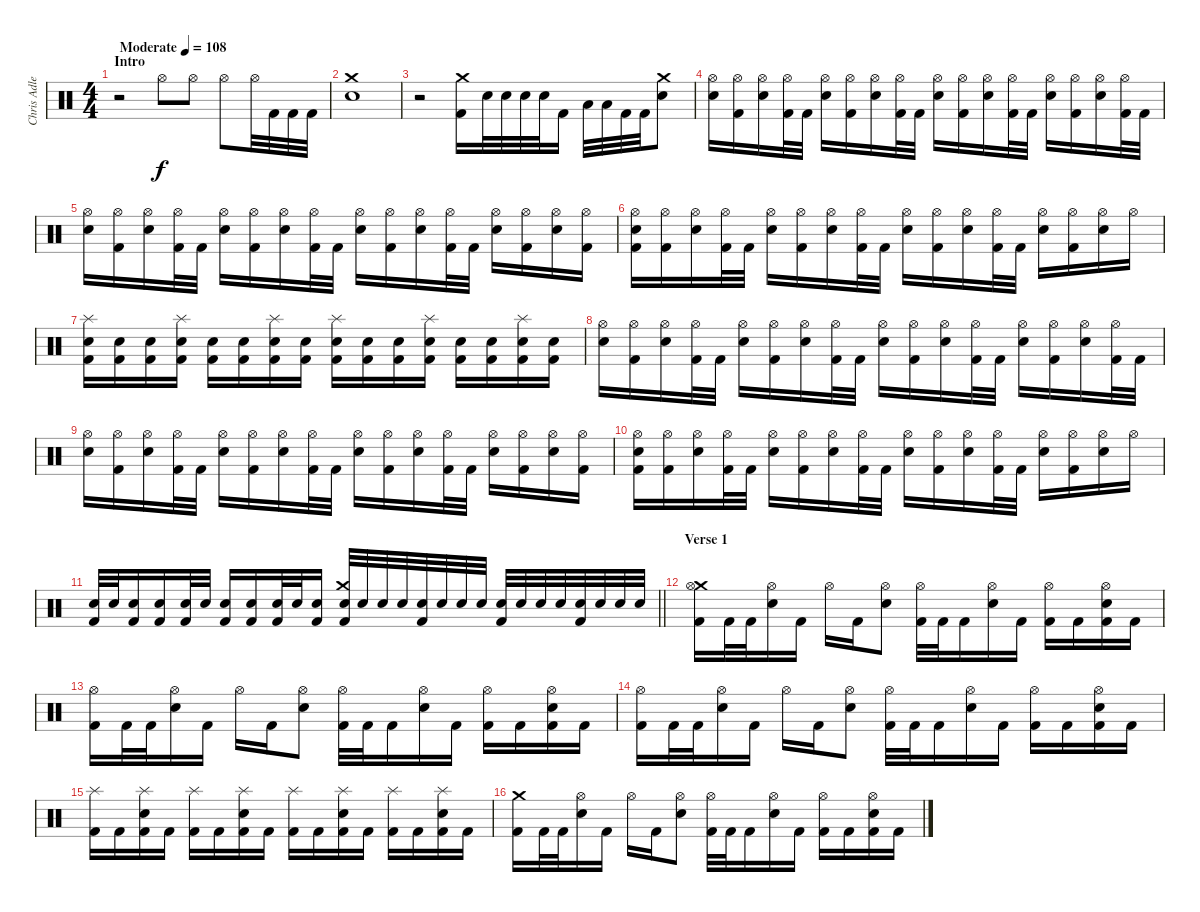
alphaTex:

\track ("Chris Adler" "Chris Adle") {instrument percussion}
\staff {score}
\articulation defaults
\ts (4 4)
\section ("" "Intro")
\tempo (108 "Moderate")
\clef neutral
\ks c
r.2{dy f} "Hi-Hat (open)".8 "Hi-Hat (open)".8 "Hi-Hat (open)".8 "Hi-Hat (open)".32 "Kick (hit) 2".32 "Kick (hit) 2".32 "Kick (hit) 2".32 |
("Crash medium (hit)" "Electric Snare (hit)").1 |
r.2 ("Crash medium (hit)" "Kick (hit) 2").16 "Electric Snare (hit)".32 "Electric Snare (hit)".32 "Electric Snare (hit)".32 "Electric Snare (hit)".32 "Kick (hit) 2".16 "Low Tom (hit)".32 "Low Tom (hit)".32 "Kick (hit) 2".32 "Kick (hit) 2".32 ("Crash medium (hit)" "Electric Snare (hit)").8 |
("Hi-Hat (open)" "Electric Snare (hit)").16 ("Hi-Hat (open)" "Kick (hit) 2").16 ("Hi-Hat (open)" "Electric Snare (hit)").16 ("Hi-Hat (open)" "Kick (hit) 2").32 "Kick (hit) 2".32 ("Hi-Hat (open)" "Electric Snare (hit)").16 ("Hi-Hat (open)" "Kick (hit) 2").16 ("Hi-Hat (open)" "Electric Snare (hit)").16 ("Hi-Hat (open)" "Kick (hit) 2").32 "Kick (hit) 2".32 ("Hi-Hat (open)" "Electric Snare (hit)").16 ("Hi-Hat (open)" "Kick (hit) 2").16 ("Hi-Hat (open)" "Electric Snare (hit)").16 ("Hi-Hat (open)" "Kick (hit) 2").32 "Kick (hit) 2".32 ("Hi-Hat (open)" "Electric Snare (hit)").16 ("Hi-Hat (open)" "Kick (hit) 2").16 ("Hi-Hat (open)" "Electric Snare (hit)").16 ("Hi-Hat (open)" "Kick (hit) 2").32 "Kick (hit) 2".32 |
("Hi-Hat (open)" "Electric Snare (hit)").16 ("Hi-Hat (open)" "Kick (hit) 2").16 ("Hi-Hat (open)" "Electric Snare (hit)").16 ("Hi-Hat (open)" "Kick (hit) 2").32 "Kick (hit) 2".32 ("Hi-Hat (open)" "Electric Snare (hit)").16 ("Hi-Hat (open)" "Kick (hit) 2").16 ("Hi-Hat (open)" "Electric Snare (hit)").16 ("Hi-Hat (open)" "Kick (hit) 2").32 "Kick (hit) 2".32 ("Hi-Hat (open)" "Electric Snare (hit)").16 ("Hi-Hat (open)" "Kick (hit) 2").16 ("Hi-Hat (open)" "Electric Snare (hit)").16 ("Hi-Hat (open)" "Kick (hit) 2").32 "Kick (hit) 2".32 ("Hi-Hat (open)" "Electric Snare (hit)").16 ("Hi-Hat (open)" "Kick (hit) 2").16 ("Hi-Hat (open)" "Electric Snare (hit)").16 ("Hi-Hat (open)" "Kick (hit) 2").16 |
("Hi-Hat (open)" "Electric Snare (hit)" "Kick (hit) 2").16 ("Hi-Hat (open)" "Kick (hit) 2").16 ("Hi-Hat (open)" "Electric Snare (hit)").16 ("Hi-Hat (open)" "Kick (hit) 2").32 "Kick (hit) 2".32 ("Hi-Hat (open)" "Electric Snare (hit)").16 ("Hi-Hat (open)" "Kick (hit) 2").16 ("Hi-Hat (open)" "Electric Snare (hit)").16 ("Hi-Hat (open)" "Kick (hit) 2").32 "Kick (hit) 2".32 ("Hi-Hat (open)" "Electric Snare (hit)").16 ("Hi-Hat (open)" "Kick (hit) 2").16 ("Hi-Hat (open)" "Electric Snare (hit)").16 ("Hi-Hat (open)" "Kick (hit) 2").32 "Kick (hit) 2".32 ("Hi-Hat (open)" "Electric Snare (hit)").16 ("Hi-Hat (open)" "Kick (hit) 2").16 ("Hi-Hat (open)" "Electric Snare (hit)").16 "Hi-Hat (open)".16 |
("Splash (hit)" "Electric Snare (hit)" "Kick (hit) 2").16 ("Electric Snare (hit)" "Kick (hit) 2").16 ("Electric Snare (hit)" "Kick (hit) 2").16 ("Splash (hit)" "Electric Snare (hit)" "Kick (hit) 2").16 ("Electric Snare (hit)" "Kick (hit) 2").16 ("Electric Snare (hit)" "Kick (hit) 2").16 ("Splash (hit)" "Electric Snare (hit)" "Kick (hit) 2").16 ("Electric Snare (hit)" "Kick (hit) 2").16 ("Splash (hit)" "Electric Snare (hit)" "Kick (hit) 2").16 ("Electric Snare (hit)" "Kick (hit) 2").16 ("Electric Snare (hit)" "Kick (hit) 2").16 ("Splash (hit)" "Electric Snare (hit)" "Kick (hit) 2").16 ("Electric Snare (hit)" "Kick (hit) 2").16 ("Electric Snare (hit)" "Kick (hit) 2").16 ("Splash (hit)" "Electric Snare (hit)" "Kick (hit) 2").16 ("Electric Snare (hit)" "Kick (hit) 2").16 |
("Hi-Hat (open)" "Electric Snare (hit)").16 ("Hi-Hat (open)" "Kick (hit) 2").16 ("Hi-Hat (open)" "Electric Snare (hit)").16 ("Hi-Hat (open)" "Kick (hit) 2").32 "Kick (hit) 2".32 ("Hi-Hat (open)" "Electric Snare (hit)").16 ("Hi-Hat (open)" "Kick (hit) 2").16 ("Hi-Hat (open)" "Electric Snare (hit)").16 ("Hi-Hat (open)" "Kick (hit) 2").32 "Kick (hit) 2".32 ("Hi-Hat (open)" "Electric Snare (hit)").16 ("Hi-Hat (open)" "Kick (hit) 2").16 ("Hi-Hat (open)" "Electric Snare (hit)").16 ("Hi-Hat (open)" "Kick (hit) 2").32 "Kick (hit) 2".32 ("Hi-Hat (open)" "Electric Snare (hit)").16 ("Hi-Hat (open)" "Kick (hit) 2").16 ("Hi-Hat (open)" "Electric Snare (hit)").16 ("Hi-Hat (open)" "Kick (hit) 2").32 "Kick (hit) 2".32 |
("Hi-Hat (open)" "Electric Snare (hit)").16 ("Hi-Hat (open)" "Kick (hit) 2").16 ("Hi-Hat (open)" "Electric Snare (hit)").16 ("Hi-Hat (open)" "Kick (hit) 2").32 "Kick (hit) 2".32 ("Hi-Hat (open)" "Electric Snare (hit)").16 ("Hi-Hat (open)" "Kick (hit) 2").16 ("Hi-Hat (open)" "Electric Snare (hit)").16 ("Hi-Hat (open)" "Kick (hit) 2").32 "Kick (hit) 2".32 ("Hi-Hat (open)" "Electric Snare (hit)").16 ("Hi-Hat (open)" "Kick (hit) 2").16 ("Hi-Hat (open)" "Electric Snare (hit)").16 ("Hi-Hat (open)" "Kick (hit) 2").32 "Kick (hit) 2".32 ("Hi-Hat (open)" "Electric Snare (hit)").16 ("Hi-Hat (open)" "Kick (hit) 2").16 ("Hi-Hat (open)" "Electric Snare (hit)").16 ("Hi-Hat (open)" "Kick (hit) 2").16 |
("Hi-Hat (open)" "Electric Snare (hit)" "Kick (hit) 2").16 ("Hi-Hat (open)" "Kick (hit) 2").16 ("Hi-Hat (open)" "Electric Snare (hit)").16 ("Hi-Hat (open)" "Kick (hit) 2").32 "Kick (hit) 2".32 ("Hi-Hat (open)" "Electric Snare (hit)").16 ("Hi-Hat (open)" "Kick (hit) 2").16 ("Hi-Hat (open)" "Electric Snare (hit)").16 ("Hi-Hat (open)" "Kick (hit) 2").32 "Kick (hit) 2".32 ("Hi-Hat (open)" "Electric Snare (hit)").16 ("Hi-Hat (open)" "Kick (hit) 2").16 ("Hi-Hat (open)" "Electric Snare (hit)").16 ("Hi-Hat (open)" "Kick (hit) 2").32 "Kick (hit) 2".32 ("Hi-Hat (open)" "Electric Snare (hit)").16 ("Hi-Hat (open)" "Kick (hit) 2").16 ("Hi-Hat (open)" "Electric Snare (hit)").16 "Hi-Hat (open)".16 |
\barLineRight lightlight
("Electric Snare (hit)" "Kick (hit) 2").32 "Electric Snare (hit)".32 ("Electric Snare (hit)" "Kick (hit) 2").16 ("Electric Snare (hit)" "Kick (hit) 2").16 ("Electric Snare (hit)" "Kick (hit) 2").32 "Electric Snare (hit)".32 ("Electric Snare (hit)" "Kick (hit) 2").16 ("Electric Snare (hit)" "Kick (hit) 2").16 ("Electric Snare (hit)" "Kick (hit) 2").32 "Electric Snare (hit)".32 ("Electric Snare (hit)" "Kick (hit) 2").16 ("Crash medium (hit)" "Electric Snare (hit)" "Kick (hit) 2").32{volume 16} "Electric Snare (hit)".32 "Electric Snare (hit)".32 "Electric Snare (hit)".32 ("Electric Snare (hit)" "Kick (hit) 2").32 "Electric Snare (hit)".32 "Electric Snare (hit)".32 "Electric Snare (hit)".32 ("Electric Snare (hit)" "Kick (hit) 2").32 "Electric Snare (hit)".32 "Electric Snare (hit)".32 "Electric Snare (hit)".32 ("Electric Snare (hit)" "Kick (hit) 2").32 "Electric Snare (hit)".32 "Electric Snare (hit)".32 "Electric Snare (hit)".32 |
\section ("" "Verse 1")
("Crash medium (hit)" "Hi-Hat (open)" "Kick (hit) 2").16 "Kick (hit) 2".32 "Kick (hit) 2".32 ("Hi-Hat (open)" "Electric Snare (hit)").16 "Kick (hit) 2".16 "Hi-Hat (open)".16 "Kick (hit) 2".16 ("Hi-Hat (open)" "Electric Snare (hit)").8 ("Hi-Hat (open)" "Kick (hit) 2").32 "Kick (hit) 2".32 "Kick (hit) 2".16 ("Hi-Hat (open)" "Electric Snare (hit)").16 "Kick (hit) 2".16 ("Hi-Hat (open)" "Kick (hit) 2").16 "Kick (hit) 2".16 ("Hi-Hat (open)" "Electric Snare (hit)" "Kick (hit) 2").16 "Kick (hit) 2".16 |
("Hi-Hat (open)" "Kick (hit) 2").16 "Kick (hit) 2".32 "Kick (hit) 2".32 ("Hi-Hat (open)" "Electric Snare (hit)").16 "Kick (hit) 2".16 "Hi-Hat (open)".16 "Kick (hit) 2".16 ("Hi-Hat (open)" "Electric Snare (hit)").8 ("Hi-Hat (open)" "Kick (hit) 2").32 "Kick (hit) 2".32 "Kick (hit) 2".16 ("Hi-Hat (open)" "Electric Snare (hit)").16 "Kick (hit) 2".16 ("Hi-Hat (open)" "Kick (hit) 2").16 "Kick (hit) 2".16 ("Hi-Hat (open)" "Electric Snare (hit)" "Kick (hit) 2").16 "Kick (hit) 2".16 |
("Hi-Hat (open)" "Kick (hit) 2").16 "Kick (hit) 2".32 "Kick (hit) 2".32 ("Hi-Hat (open)" "Electric Snare (hit)").16 "Kick (hit) 2".16 "Hi-Hat (open)".16 "Kick (hit) 2".16 ("Hi-Hat (open)" "Electric Snare (hit)").8 ("Hi-Hat (open)" "Kick (hit) 2").32 "Kick (hit) 2".32 "Kick (hit) 2".16 ("Hi-Hat (open)" "Electric Snare (hit)").16 "Kick (hit) 2".16 ("Hi-Hat (open)" "Kick (hit) 2").16 "Kick (hit) 2".16 ("Hi-Hat (open)" "Electric Snare (hit)" "Kick (hit) 2").16 "Kick (hit) 2".16 |
("Splash (hit)" "Kick (hit) 2").16 "Kick (hit) 2".16 ("Splash (hit)" "Electric Snare (hit)" "Kick (hit) 2").16 "Kick (hit) 2".16 ("Splash (hit)" "Kick (hit) 2").16 "Kick (hit) 2".16 ("Splash (hit)" "Electric Snare (hit)" "Kick (hit) 2").16 "Kick (hit) 2".16 ("Splash (hit)" "Kick (hit) 2").16 "Kick (hit) 2".16 ("Splash (hit)" "Electric Snare (hit)" "Kick (hit) 2").16 "Kick (hit) 2".16 ("Splash (hit)" "Kick (hit) 2").16 "Kick (hit) 2".16 ("Splash (hit)" "Electric Snare (hit)" "Kick (hit) 2").16 "Kick (hit) 2".16 |
("Crash medium (hit)" "Kick (hit) 2").16 "Kick (hit) 2".32 "Kick (hit) 2".32 ("Hi-Hat (open)" "Electric Snare (hit)").16 "Kick (hit) 2".16 "Hi-Hat (open)".16 "Kick (hit) 2".16 ("Hi-Hat (open)" "Electric Snare (hit)").8 ("Hi-Hat (open)" "Kick (hit) 2").32 "Kick (hit) 2".32 "Kick (hit) 2".16 ("Hi-Hat (open)" "Electric Snare (hit)").16 "Kick (hit) 2".16 ("Hi-Hat (open)" "Kick (hit) 2").16 "Kick (hit) 2".16 ("Hi-Hat (open)" "Electric Snare (hit)" "Kick (hit) 2").16 "Kick (hit) 2".16
